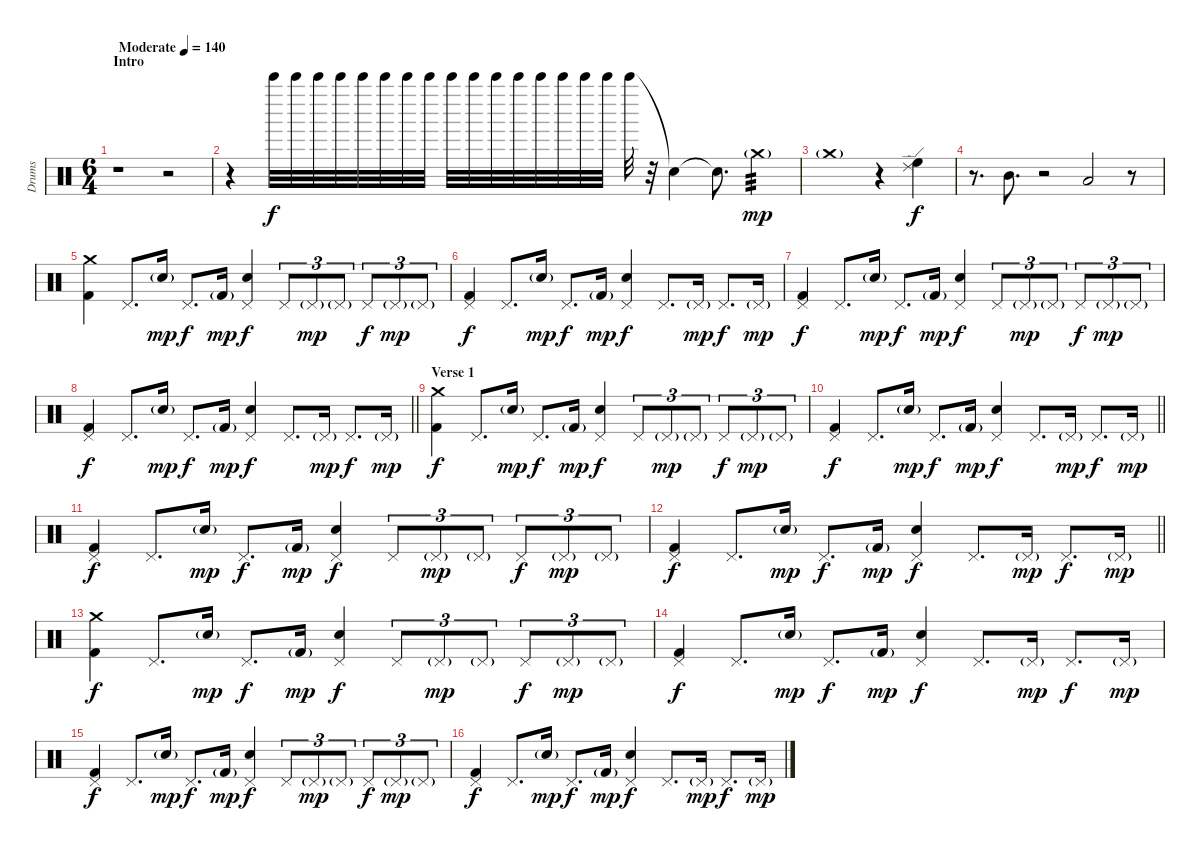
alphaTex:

\track ("Drums" "Drums") {instrument percussion}
\staff {score}
\articulation defaults
\ts (6 4)
\section ("" "Intro")
\tempo (140 "Moderate")
\clef neutral
\ks c
r.1{dy f} r.2 |
r.4 "Bell Tree (hit)".32 "Bell Tree (hit)".32 "Bell Tree (hit)".32 "Bell Tree (hit)".32 "Bell Tree (hit)".32 "Bell Tree (hit)".32 "Bell Tree (hit)".32 "Bell Tree (hit)".32 "Bell Tree (hit)".32 "Bell Tree (hit)".32 "Bell Tree (hit)".32 "Bell Tree (hit)".32 "Bell Tree (hit)".32 "Bell Tree (hit)".32 "Bell Tree (hit)".32 "Bell Tree (hit)".32 "Bell Tree (hit)".32 r.32 "Snare (hit)"{t}.4 "Snare (hit)"{t}.8{d} "Crash medium (hit)"{g}.4{tp 3 dy mp} |
"Crash medium (hit)"{g}.1 r.4 ("Ride (edge) 2" "High Floor Tom (hit)").4{dy f} |
r.8{d} "Mid Tom (hit)".8{d} r.2 "Low Tom (hit)".2 r.8 |
("Crash medium (hit)" "Kick (hit) 2").4 "Pedal Hi-Hat (hit)".8{d} "Electric Snare (hit)"{g}.16{dy mp} "Pedal Hi-Hat (hit)".8{d dy f} "Kick (hit) 2"{g}.16{dy mp} ("Pedal Hi-Hat (hit)" "Electric Snare (hit)").4{dy f} "Pedal Hi-Hat (hit)".8{tu (3 2)} "Pedal Hi-Hat (hit)"{g}.8{tu (3 2) dy mp} "Pedal Hi-Hat (hit)"{g}.8{tu (3 2)} "Pedal Hi-Hat (hit)".8{tu (3 2) dy f} "Pedal Hi-Hat (hit)"{g}.8{tu (3 2) dy mp} "Pedal Hi-Hat (hit)"{g}.8{tu (3 2)} |
("Pedal Hi-Hat (hit)" "Kick (hit) 2").4{dy f} "Pedal Hi-Hat (hit)".8{d} "Electric Snare (hit)"{g}.16{dy mp} "Pedal Hi-Hat (hit)".8{d dy f} "Kick (hit) 2"{g}.16{dy mp} ("Pedal Hi-Hat (hit)" "Electric Snare (hit)").4{dy f} "Pedal Hi-Hat (hit)".8{d} "Pedal Hi-Hat (hit)"{g}.16{dy mp} "Pedal Hi-Hat (hit)".8{d dy f} "Pedal Hi-Hat (hit)"{g}.16{dy mp} |
("Pedal Hi-Hat (hit)" "Kick (hit) 2").4{dy f} "Pedal Hi-Hat (hit)".8{d} "Electric Snare (hit)"{g}.16{dy mp} "Pedal Hi-Hat (hit)".8{d dy f} "Kick (hit) 2"{g}.16{dy mp} ("Pedal Hi-Hat (hit)" "Electric Snare (hit)").4{dy f} "Pedal Hi-Hat (hit)".8{tu (3 2)} "Pedal Hi-Hat (hit)"{g}.8{tu (3 2) dy mp} "Pedal Hi-Hat (hit)"{g}.8{tu (3 2)} "Pedal Hi-Hat (hit)".8{tu (3 2) dy f} "Pedal Hi-Hat (hit)"{g}.8{tu (3 2) dy mp} "Pedal Hi-Hat (hit)"{g}.8{tu (3 2)} |
\barLineRight lightlight
("Pedal Hi-Hat (hit)" "Kick (hit) 2").4{dy f} "Pedal Hi-Hat (hit)".8{d} "Electric Snare (hit)"{g}.16{dy mp} "Pedal Hi-Hat (hit)".8{d dy f} "Kick (hit) 2"{g}.16{dy mp} ("Pedal Hi-Hat (hit)" "Electric Snare (hit)").4{dy f} "Pedal Hi-Hat (hit)".8{d} "Pedal Hi-Hat (hit)"{g}.16{dy mp} "Pedal Hi-Hat (hit)".8{d dy f} "Pedal Hi-Hat (hit)"{g}.16{dy mp} |
\section ("" "Verse 1")
("Crash medium (hit)" "Kick (hit) 2").4{dy f} "Pedal Hi-Hat (hit)".8{d} "Electric Snare (hit)"{g}.16{dy mp} "Pedal Hi-Hat (hit)".8{d dy f} "Kick (hit) 2"{g}.16{dy mp} ("Pedal Hi-Hat (hit)" "Electric Snare (hit)").4{dy f} "Pedal Hi-Hat (hit)".8{tu (3 2)} "Pedal Hi-Hat (hit)"{g}.8{tu (3 2) dy mp} "Pedal Hi-Hat (hit)"{g}.8{tu (3 2)} "Pedal Hi-Hat (hit)".8{tu (3 2) dy f} "Pedal Hi-Hat (hit)"{g}.8{tu (3 2) dy mp} "Pedal Hi-Hat (hit)"{g}.8{tu (3 2)} |
\barLineRight lightlight
("Pedal Hi-Hat (hit)" "Kick (hit) 2").4{dy f} "Pedal Hi-Hat (hit)".8{d} "Electric Snare (hit)"{g}.16{dy mp} "Pedal Hi-Hat (hit)".8{d dy f} "Kick (hit) 2"{g}.16{dy mp} ("Pedal Hi-Hat (hit)" "Electric Snare (hit)").4{dy f} "Pedal Hi-Hat (hit)".8{d} "Pedal Hi-Hat (hit)"{g}.16{dy mp} "Pedal Hi-Hat (hit)".8{d dy f} "Pedal Hi-Hat (hit)"{g}.16{dy mp} |
("Pedal Hi-Hat (hit)" "Kick (hit) 2").4{dy f} "Pedal Hi-Hat (hit)".8{d} "Electric Snare (hit)"{g}.16{dy mp} "Pedal Hi-Hat (hit)".8{d dy f} "Kick (hit) 2"{g}.16{dy mp} ("Pedal Hi-Hat (hit)" "Electric Snare (hit)").4{dy f} "Pedal Hi-Hat (hit)".8{tu (3 2)} "Pedal Hi-Hat (hit)"{g}.8{tu (3 2) dy mp} "Pedal Hi-Hat (hit)"{g}.8{tu (3 2)} "Pedal Hi-Hat (hit)".8{tu (3 2) dy f} "Pedal Hi-Hat (hit)"{g}.8{tu (3 2) dy mp} "Pedal Hi-Hat (hit)"{g}.8{tu (3 2)} |
\barLineRight lightlight
("Pedal Hi-Hat (hit)" "Kick (hit) 2").4{dy f} "Pedal Hi-Hat (hit)".8{d} "Electric Snare (hit)"{g}.16{dy mp} "Pedal Hi-Hat (hit)".8{d dy f} "Kick (hit) 2"{g}.16{dy mp} ("Pedal Hi-Hat (hit)" "Electric Snare (hit)").4{dy f} "Pedal Hi-Hat (hit)".8{d} "Pedal Hi-Hat (hit)"{g}.16{dy mp} "Pedal Hi-Hat (hit)".8{d dy f} "Pedal Hi-Hat (hit)"{g}.16{dy mp} |
("Crash medium (hit)" "Kick (hit) 2").4{dy f} "Pedal Hi-Hat (hit)".8{d} "Electric Snare (hit)"{g}.16{dy mp} "Pedal Hi-Hat (hit)".8{d dy f} "Kick (hit) 2"{g}.16{dy mp} ("Pedal Hi-Hat (hit)" "Electric Snare (hit)").4{dy f} "Pedal Hi-Hat (hit)".8{tu (3 2)} "Pedal Hi-Hat (hit)"{g}.8{tu (3 2) dy mp} "Pedal Hi-Hat (hit)"{g}.8{tu (3 2)} "Pedal Hi-Hat (hit)".8{tu (3 2) dy f} "Pedal Hi-Hat (hit)"{g}.8{tu (3 2) dy mp} "Pedal Hi-Hat (hit)"{g}.8{tu (3 2)} |
("Pedal Hi-Hat (hit)" "Kick (hit) 2").4{dy f} "Pedal Hi-Hat (hit)".8{d} "Electric Snare (hit)"{g}.16{dy mp} "Pedal Hi-Hat (hit)".8{d dy f} "Kick (hit) 2"{g}.16{dy mp} ("Pedal Hi-Hat (hit)" "Electric Snare (hit)").4{dy f} "Pedal Hi-Hat (hit)".8{d} "Pedal Hi-Hat (hit)"{g}.16{dy mp} "Pedal Hi-Hat (hit)".8{d dy f} "Pedal Hi-Hat (hit)"{g}.16{dy mp} |
("Pedal Hi-Hat (hit)" "Kick (hit) 2").4{dy f} "Pedal Hi-Hat (hit)".8{d} "Electric Snare (hit)"{g}.16{dy mp} "Pedal Hi-Hat (hit)".8{d dy f} "Kick (hit) 2"{g}.16{dy mp} ("Pedal Hi-Hat (hit)" "Electric Snare (hit)").4{dy f} "Pedal Hi-Hat (hit)".8{tu (3 2)} "Pedal Hi-Hat (hit)"{g}.8{tu (3 2) dy mp} "Pedal Hi-Hat (hit)"{g}.8{tu (3 2)} "Pedal Hi-Hat (hit)".8{tu (3 2) dy f} "Pedal Hi-Hat (hit)"{g}.8{tu (3 2) dy mp} "Pedal Hi-Hat (hit)"{g}.8{tu (3 2)} |
("Pedal Hi-Hat (hit)" "Kick (hit) 2").4{dy f} "Pedal Hi-Hat (hit)".8{d} "Electric Snare (hit)"{g}.16{dy mp} "Pedal Hi-Hat (hit)".8{d dy f} "Kick (hit) 2"{g}.16{dy mp} ("Pedal Hi-Hat (hit)" "Electric Snare (hit)").4{dy f} "Pedal Hi-Hat (hit)".8{d} "Pedal Hi-Hat (hit)"{g}.16{dy mp} "Pedal Hi-Hat (hit)".8{d dy f} "Pedal Hi-Hat (hit)"{g}.16{dy mp}
